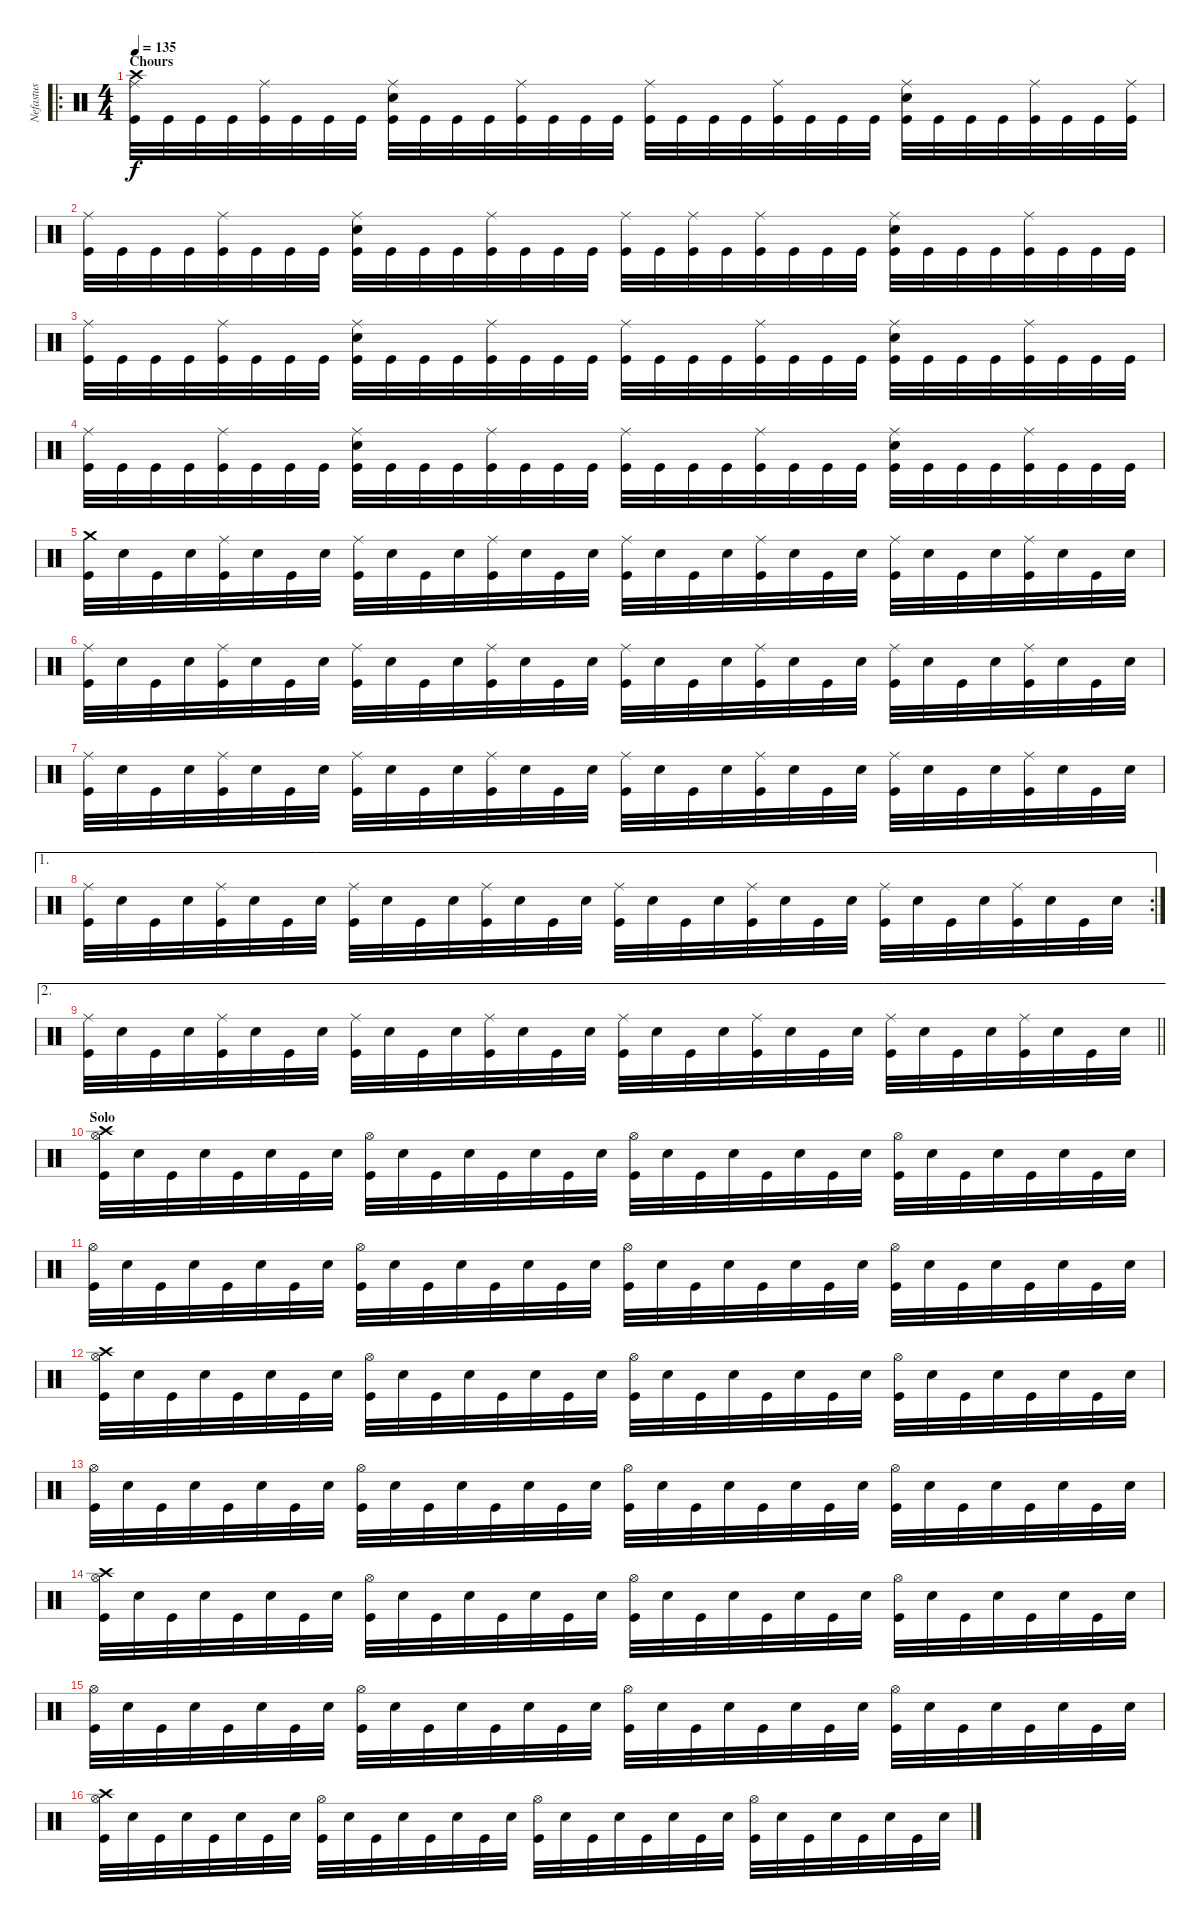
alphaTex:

\track ("Nefastus" "Nefastus") {instrument percussion}
\staff {score}
\articulation defaults
\ro
\ts (4 4)
\section ("" "Chours")
\tempo 135
\clef neutral
\ks c
("Crash high (hit)" "Ride (middle)" "Kick (hit)").32{dy f} "Kick (hit)".32 "Kick (hit)".32 "Kick (hit)".32 ("Ride (middle)" "Kick (hit)").32 "Kick (hit)".32 "Kick (hit)".32 "Kick (hit)".32 ("Electric Snare (hit)" "Ride (middle)" "Kick (hit)").32 "Kick (hit)".32 "Kick (hit)".32 "Kick (hit)".32 ("Ride (middle)" "Kick (hit)").32 "Kick (hit)".32 "Kick (hit)".32 "Kick (hit)".32 ("Ride (middle)" "Kick (hit)").32 "Kick (hit)".32 "Kick (hit)".32 "Kick (hit)".32 ("Ride (middle)" "Kick (hit)").32 "Kick (hit)".32 "Kick (hit)".32 "Kick (hit)".32 ("Electric Snare (hit)" "Ride (middle)" "Kick (hit)").32 "Kick (hit)".32 "Kick (hit)".32 "Kick (hit)".32 ("Ride (middle)" "Kick (hit)").32 "Kick (hit)".32 "Kick (hit)".32 ("Ride (middle)" "Kick (hit)").32 |
("Ride (middle)" "Kick (hit)").32 "Kick (hit)".32 "Kick (hit)".32 "Kick (hit)".32 ("Ride (middle)" "Kick (hit)").32 "Kick (hit)".32 "Kick (hit)".32 "Kick (hit)".32 ("Electric Snare (hit)" "Ride (middle)" "Kick (hit)").32 "Kick (hit)".32 "Kick (hit)".32 "Kick (hit)".32 ("Ride (middle)" "Kick (hit)").32 "Kick (hit)".32 "Kick (hit)".32 "Kick (hit)".32 ("Ride (middle)" "Kick (hit)").32 "Kick (hit)".32 ("Ride (middle)" "Kick (hit)").32 "Kick (hit)".32 ("Ride (middle)" "Kick (hit)").32 "Kick (hit)".32 "Kick (hit)".32 "Kick (hit)".32 ("Electric Snare (hit)" "Ride (middle)" "Kick (hit)").32 "Kick (hit)".32 "Kick (hit)".32 "Kick (hit)".32 ("Ride (middle)" "Kick (hit)").32 "Kick (hit)".32 "Kick (hit)".32 "Kick (hit)".32 |
("Ride (middle)" "Kick (hit)").32 "Kick (hit)".32 "Kick (hit)".32 "Kick (hit)".32 ("Ride (middle)" "Kick (hit)").32 "Kick (hit)".32 "Kick (hit)".32 "Kick (hit)".32 ("Electric Snare (hit)" "Ride (middle)" "Kick (hit)").32 "Kick (hit)".32 "Kick (hit)".32 "Kick (hit)".32 ("Ride (middle)" "Kick (hit)").32 "Kick (hit)".32 "Kick (hit)".32 "Kick (hit)".32 ("Ride (middle)" "Kick (hit)").32 "Kick (hit)".32 "Kick (hit)".32 "Kick (hit)".32 ("Ride (middle)" "Kick (hit)").32 "Kick (hit)".32 "Kick (hit)".32 "Kick (hit)".32 ("Electric Snare (hit)" "Ride (middle)" "Kick (hit)").32 "Kick (hit)".32 "Kick (hit)".32 "Kick (hit)".32 ("Ride (middle)" "Kick (hit)").32 "Kick (hit)".32 "Kick (hit)".32 "Kick (hit)".32 |
("Ride (middle)" "Kick (hit)").32 "Kick (hit)".32 "Kick (hit)".32 "Kick (hit)".32 ("Ride (middle)" "Kick (hit)").32 "Kick (hit)".32 "Kick (hit)".32 "Kick (hit)".32 ("Electric Snare (hit)" "Ride (middle)" "Kick (hit)").32 "Kick (hit)".32 "Kick (hit)".32 "Kick (hit)".32 ("Ride (middle)" "Kick (hit)").32 "Kick (hit)".32 "Kick (hit)".32 "Kick (hit)".32 ("Ride (middle)" "Kick (hit)").32 "Kick (hit)".32 "Kick (hit)".32 "Kick (hit)".32 ("Ride (middle)" "Kick (hit)").32 "Kick (hit)".32 "Kick (hit)".32 "Kick (hit)".32 ("Electric Snare (hit)" "Ride (middle)" "Kick (hit)").32 "Kick (hit)".32 "Kick (hit)".32 "Kick (hit)".32 ("Ride (middle)" "Kick (hit)").32 "Kick (hit)".32 "Kick (hit)".32 "Kick (hit)".32 |
("Crash medium (hit)" "Kick (hit)").32 "Electric Snare (hit)".32 "Kick (hit)".32 "Electric Snare (hit)".32 ("Ride (middle)" "Kick (hit)").32 "Electric Snare (hit)".32 "Kick (hit)".32 "Electric Snare (hit)".32 ("Ride (middle)" "Kick (hit)").32 "Electric Snare (hit)".32 "Kick (hit)".32 "Electric Snare (hit)".32 ("Ride (middle)" "Kick (hit)").32 "Electric Snare (hit)".32 "Kick (hit)".32 "Electric Snare (hit)".32 ("Ride (middle)" "Kick (hit)").32 "Electric Snare (hit)".32 "Kick (hit)".32 "Electric Snare (hit)".32 ("Ride (middle)" "Kick (hit)").32 "Electric Snare (hit)".32 "Kick (hit)".32 "Electric Snare (hit)".32 ("Ride (middle)" "Kick (hit)").32 "Electric Snare (hit)".32 "Kick (hit)".32 "Electric Snare (hit)".32 ("Ride (middle)" "Kick (hit)").32 "Electric Snare (hit)".32 "Kick (hit)".32 "Electric Snare (hit)".32 |
("Ride (middle)" "Kick (hit)").32 "Electric Snare (hit)".32 "Kick (hit)".32 "Electric Snare (hit)".32 ("Ride (middle)" "Kick (hit)").32 "Electric Snare (hit)".32 "Kick (hit)".32 "Electric Snare (hit)".32 ("Ride (middle)" "Kick (hit)").32 "Electric Snare (hit)".32 "Kick (hit)".32 "Electric Snare (hit)".32 ("Ride (middle)" "Kick (hit)").32 "Electric Snare (hit)".32 "Kick (hit)".32 "Electric Snare (hit)".32 ("Ride (middle)" "Kick (hit)").32 "Electric Snare (hit)".32 "Kick (hit)".32 "Electric Snare (hit)".32 ("Ride (middle)" "Kick (hit)").32 "Electric Snare (hit)".32 "Kick (hit)".32 "Electric Snare (hit)".32 ("Ride (middle)" "Kick (hit)").32 "Electric Snare (hit)".32 "Kick (hit)".32 "Electric Snare (hit)".32 ("Ride (middle)" "Kick (hit)").32 "Electric Snare (hit)".32 "Kick (hit)".32 "Electric Snare (hit)".32 |
("Ride (middle)" "Kick (hit)").32 "Electric Snare (hit)".32 "Kick (hit)".32 "Electric Snare (hit)".32 ("Ride (middle)" "Kick (hit)").32 "Electric Snare (hit)".32 "Kick (hit)".32 "Electric Snare (hit)".32 ("Ride (middle)" "Kick (hit)").32 "Electric Snare (hit)".32 "Kick (hit)".32 "Electric Snare (hit)".32 ("Ride (middle)" "Kick (hit)").32 "Electric Snare (hit)".32 "Kick (hit)".32 "Electric Snare (hit)".32 ("Ride (middle)" "Kick (hit)").32 "Electric Snare (hit)".32 "Kick (hit)".32 "Electric Snare (hit)".32 ("Ride (middle)" "Kick (hit)").32 "Electric Snare (hit)".32 "Kick (hit)".32 "Electric Snare (hit)".32 ("Ride (middle)" "Kick (hit)").32 "Electric Snare (hit)".32 "Kick (hit)".32 "Electric Snare (hit)".32 ("Ride (middle)" "Kick (hit)").32 "Electric Snare (hit)".32 "Kick (hit)".32 "Electric Snare (hit)".32 |
\ae 1
\rc 2
("Ride (middle)" "Kick (hit)").32 "Electric Snare (hit)".32 "Kick (hit)".32 "Electric Snare (hit)".32 ("Ride (middle)" "Kick (hit)").32 "Electric Snare (hit)".32 "Kick (hit)".32 "Electric Snare (hit)".32 ("Ride (middle)" "Kick (hit)").32 "Electric Snare (hit)".32 "Kick (hit)".32 "Electric Snare (hit)".32 ("Ride (middle)" "Kick (hit)").32 "Electric Snare (hit)".32 "Kick (hit)".32 "Electric Snare (hit)".32 ("Ride (middle)" "Kick (hit)").32 "Electric Snare (hit)".32 "Kick (hit)".32 "Electric Snare (hit)".32 ("Ride (middle)" "Kick (hit)").32 "Electric Snare (hit)".32 "Kick (hit)".32 "Electric Snare (hit)".32 ("Ride (middle)" "Kick (hit)").32 "Electric Snare (hit)".32 "Kick (hit)".32 "Electric Snare (hit)".32 ("Ride (middle)" "Kick (hit)").32 "Electric Snare (hit)".32 "Kick (hit)".32 "Electric Snare (hit)".32 |
\ae 2
\barLineRight lightlight
("Ride (middle)" "Kick (hit)").32 "Electric Snare (hit)".32 "Kick (hit)".32 "Electric Snare (hit)".32 ("Ride (middle)" "Kick (hit)").32 "Electric Snare (hit)".32 "Kick (hit)".32 "Electric Snare (hit)".32 ("Ride (middle)" "Kick (hit)").32 "Electric Snare (hit)".32 "Kick (hit)".32 "Electric Snare (hit)".32 ("Ride (middle)" "Kick (hit)").32 "Electric Snare (hit)".32 "Kick (hit)".32 "Electric Snare (hit)".32 ("Ride (middle)" "Kick (hit)").32 "Electric Snare (hit)".32 "Kick (hit)".32 "Electric Snare (hit)".32 ("Ride (middle)" "Kick (hit)").32 "Electric Snare (hit)".32 "Kick (hit)".32 "Electric Snare (hit)".32 ("Ride (middle)" "Kick (hit)").32 "Electric Snare (hit)".32 "Kick (hit)".32 "Electric Snare (hit)".32 ("Ride (middle)" "Kick (hit)").32 "Electric Snare (hit)".32 "Kick (hit)".32 "Electric Snare (hit)".32 |
\section ("" "Solo")
("Crash high (hit)" "Hi-Hat (open)" "Kick (hit)").32 "Electric Snare (hit)".32 "Kick (hit)".32 "Electric Snare (hit)".32 "Kick (hit)".32 "Electric Snare (hit)".32 "Kick (hit)".32 "Electric Snare (hit)".32 ("Hi-Hat (open)" "Kick (hit)").32 "Electric Snare (hit)".32 "Kick (hit)".32 "Electric Snare (hit)".32 "Kick (hit)".32 "Electric Snare (hit)".32 "Kick (hit)".32 "Electric Snare (hit)".32 ("Hi-Hat (open)" "Kick (hit)").32 "Electric Snare (hit)".32 "Kick (hit)".32 "Electric Snare (hit)".32 "Kick (hit)".32 "Electric Snare (hit)".32 "Kick (hit)".32 "Electric Snare (hit)".32 ("Hi-Hat (open)" "Kick (hit)").32 "Electric Snare (hit)".32 "Kick (hit)".32 "Electric Snare (hit)".32 "Kick (hit)".32 "Electric Snare (hit)".32 "Kick (hit)".32 "Electric Snare (hit)".32 |
("Hi-Hat (open)" "Kick (hit)").32 "Electric Snare (hit)".32 "Kick (hit)".32 "Electric Snare (hit)".32 "Kick (hit)".32 "Electric Snare (hit)".32 "Kick (hit)".32 "Electric Snare (hit)".32 ("Hi-Hat (open)" "Kick (hit)").32 "Electric Snare (hit)".32 "Kick (hit)".32 "Electric Snare (hit)".32 "Kick (hit)".32 "Electric Snare (hit)".32 "Kick (hit)".32 "Electric Snare (hit)".32 ("Hi-Hat (open)" "Kick (hit)").32 "Electric Snare (hit)".32 "Kick (hit)".32 "Electric Snare (hit)".32 "Kick (hit)".32 "Electric Snare (hit)".32 "Kick (hit)".32 "Electric Snare (hit)".32 ("Hi-Hat (open)" "Kick (hit)").32 "Electric Snare (hit)".32 "Kick (hit)".32 "Electric Snare (hit)".32 "Kick (hit)".32 "Electric Snare (hit)".32 "Kick (hit)".32 "Electric Snare (hit)".32 |
("Crash high (hit)" "Hi-Hat (open)" "Kick (hit)").32 "Electric Snare (hit)".32 "Kick (hit)".32 "Electric Snare (hit)".32 "Kick (hit)".32 "Electric Snare (hit)".32 "Kick (hit)".32 "Electric Snare (hit)".32 ("Hi-Hat (open)" "Kick (hit)").32 "Electric Snare (hit)".32 "Kick (hit)".32 "Electric Snare (hit)".32 "Kick (hit)".32 "Electric Snare (hit)".32 "Kick (hit)".32 "Electric Snare (hit)".32 ("Hi-Hat (open)" "Kick (hit)").32 "Electric Snare (hit)".32 "Kick (hit)".32 "Electric Snare (hit)".32 "Kick (hit)".32 "Electric Snare (hit)".32 "Kick (hit)".32 "Electric Snare (hit)".32 ("Hi-Hat (open)" "Kick (hit)").32 "Electric Snare (hit)".32 "Kick (hit)".32 "Electric Snare (hit)".32 "Kick (hit)".32 "Electric Snare (hit)".32 "Kick (hit)".32 "Electric Snare (hit)".32 |
("Hi-Hat (open)" "Kick (hit)").32 "Electric Snare (hit)".32 "Kick (hit)".32 "Electric Snare (hit)".32 "Kick (hit)".32 "Electric Snare (hit)".32 "Kick (hit)".32 "Electric Snare (hit)".32 ("Hi-Hat (open)" "Kick (hit)").32 "Electric Snare (hit)".32 "Kick (hit)".32 "Electric Snare (hit)".32 "Kick (hit)".32 "Electric Snare (hit)".32 "Kick (hit)".32 "Electric Snare (hit)".32 ("Hi-Hat (open)" "Kick (hit)").32 "Electric Snare (hit)".32 "Kick (hit)".32 "Electric Snare (hit)".32 "Kick (hit)".32 "Electric Snare (hit)".32 "Kick (hit)".32 "Electric Snare (hit)".32 ("Hi-Hat (open)" "Kick (hit)").32 "Electric Snare (hit)".32 "Kick (hit)".32 "Electric Snare (hit)".32 "Kick (hit)".32 "Electric Snare (hit)".32 "Kick (hit)".32 "Electric Snare (hit)".32 |
("Crash high (hit)" "Hi-Hat (open)" "Kick (hit)").32 "Electric Snare (hit)".32 "Kick (hit)".32 "Electric Snare (hit)".32 "Kick (hit)".32 "Electric Snare (hit)".32 "Kick (hit)".32 "Electric Snare (hit)".32 ("Hi-Hat (open)" "Kick (hit)").32 "Electric Snare (hit)".32 "Kick (hit)".32 "Electric Snare (hit)".32 "Kick (hit)".32 "Electric Snare (hit)".32 "Kick (hit)".32 "Electric Snare (hit)".32 ("Hi-Hat (open)" "Kick (hit)").32 "Electric Snare (hit)".32 "Kick (hit)".32 "Electric Snare (hit)".32 "Kick (hit)".32 "Electric Snare (hit)".32 "Kick (hit)".32 "Electric Snare (hit)".32 ("Hi-Hat (open)" "Kick (hit)").32 "Electric Snare (hit)".32 "Kick (hit)".32 "Electric Snare (hit)".32 "Kick (hit)".32 "Electric Snare (hit)".32 "Kick (hit)".32 "Electric Snare (hit)".32 |
("Hi-Hat (open)" "Kick (hit)").32 "Electric Snare (hit)".32 "Kick (hit)".32 "Electric Snare (hit)".32 "Kick (hit)".32 "Electric Snare (hit)".32 "Kick (hit)".32 "Electric Snare (hit)".32 ("Hi-Hat (open)" "Kick (hit)").32 "Electric Snare (hit)".32 "Kick (hit)".32 "Electric Snare (hit)".32 "Kick (hit)".32 "Electric Snare (hit)".32 "Kick (hit)".32 "Electric Snare (hit)".32 ("Hi-Hat (open)" "Kick (hit)").32 "Electric Snare (hit)".32 "Kick (hit)".32 "Electric Snare (hit)".32 "Kick (hit)".32 "Electric Snare (hit)".32 "Kick (hit)".32 "Electric Snare (hit)".32 ("Hi-Hat (open)" "Kick (hit)").32 "Electric Snare (hit)".32 "Kick (hit)".32 "Electric Snare (hit)".32 "Kick (hit)".32 "Electric Snare (hit)".32 "Kick (hit)".32 "Electric Snare (hit)".32 |
("Crash high (hit)" "Hi-Hat (open)" "Kick (hit)").32 "Electric Snare (hit)".32 "Kick (hit)".32 "Electric Snare (hit)".32 "Kick (hit)".32 "Electric Snare (hit)".32 "Kick (hit)".32 "Electric Snare (hit)".32 ("Hi-Hat (open)" "Kick (hit)").32 "Electric Snare (hit)".32 "Kick (hit)".32 "Electric Snare (hit)".32 "Kick (hit)".32 "Electric Snare (hit)".32 "Kick (hit)".32 "Electric Snare (hit)".32 ("Hi-Hat (open)" "Kick (hit)").32 "Electric Snare (hit)".32 "Kick (hit)".32 "Electric Snare (hit)".32 "Kick (hit)".32 "Electric Snare (hit)".32 "Kick (hit)".32 "Electric Snare (hit)".32 ("Hi-Hat (open)" "Kick (hit)").32 "Electric Snare (hit)".32 "Kick (hit)".32 "Electric Snare (hit)".32 "Kick (hit)".32 "Electric Snare (hit)".32 "Kick (hit)".32 "Electric Snare (hit)".32
